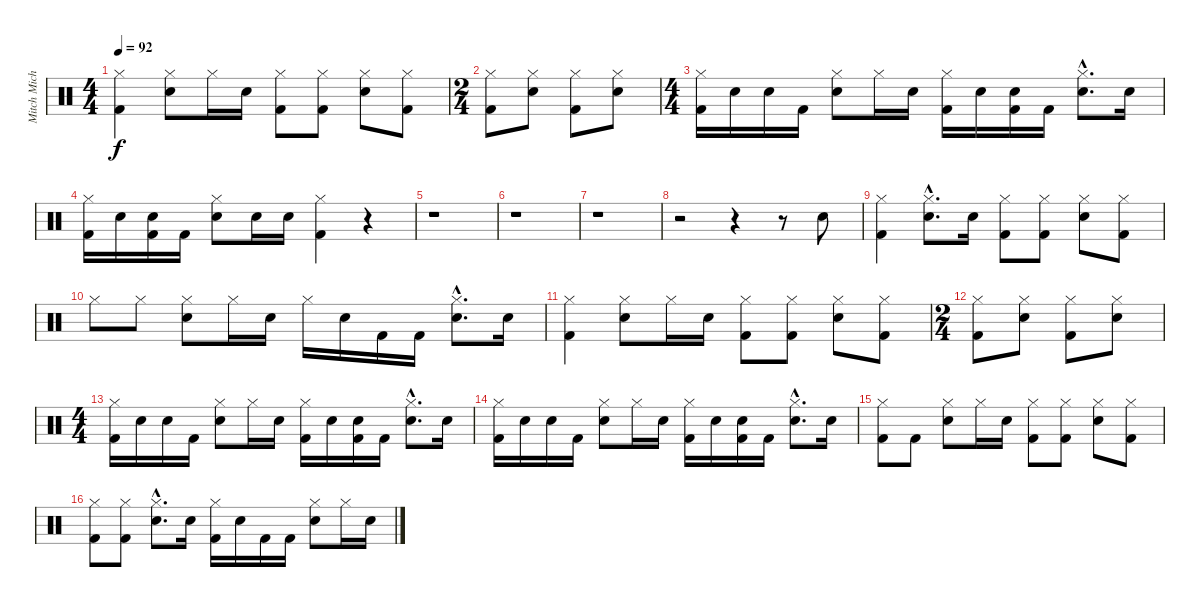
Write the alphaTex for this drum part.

\track ("Mitch Michell" "Mitch Mich") {instrument percussion}
\staff {score}
\articulation defaults
\ts (4 4)
\tempo 92
\clef neutral
\ks c
("Hi-Hat (closed)" "Kick (hit) 2").4{dy f} ("Hi-Hat (closed)" "Snare (hit) 2").8 "Hi-Hat (closed)".16 "Snare (hit) 2".16 ("Hi-Hat (closed)" "Kick (hit) 2").8 ("Hi-Hat (closed)" "Kick (hit) 2").8 ("Hi-Hat (closed)" "Snare (hit) 2").8 ("Hi-Hat (closed)" "Kick (hit) 2").8 |
\ts (2 4)
("Hi-Hat (closed)" "Kick (hit) 2").8 ("Hi-Hat (closed)" "Snare (hit) 2").8 ("Hi-Hat (closed)" "Kick (hit) 2").8 ("Hi-Hat (closed)" "Snare (hit) 2").8 |
\ts (4 4)
("Hi-Hat (closed)" "Kick (hit) 2").16 "Snare (hit) 2".16 "Snare (hit) 2".16 "Kick (hit) 2".16 ("Hi-Hat (closed)" "Snare (hit) 2").8 "Hi-Hat (closed)".16 "Snare (hit) 2".16 ("Hi-Hat (closed)" "Kick (hit) 2").16 "Snare (hit) 2".16 ("Snare (hit) 2" "Kick (hit) 2").16 "Kick (hit) 2".16 ("Hi-Hat (closed)"{hac} "Snare (hit) 2"{hac}).8{d} "Snare (hit) 2".16 |
("Hi-Hat (closed)" "Kick (hit) 2").16 "Snare (hit) 2".16 ("Snare (hit) 2" "Kick (hit) 2").16 "Kick (hit) 2".16 ("Hi-Hat (closed)" "Snare (hit) 2").8 "Snare (hit) 2".16 "Snare (hit) 2".16 ("Hi-Hat (closed)" "Kick (hit) 2").4 r.4 |
r.1 |
r.1 |
r.1 |
r.2 r.4 r.8 "Snare (hit) 2".8 |
("Hi-Hat (closed)" "Kick (hit) 2").4 ("Hi-Hat (closed)"{hac} "Snare (hit) 2"{hac}).8{d} "Snare (hit) 2".16 ("Hi-Hat (closed)" "Kick (hit) 2").8 ("Hi-Hat (closed)" "Kick (hit) 2").8 ("Hi-Hat (closed)" "Snare (hit) 2").8 ("Hi-Hat (closed)" "Kick (hit) 2").8 |
"Hi-Hat (closed)".8 "Hi-Hat (closed)".8 ("Hi-Hat (closed)" "Snare (hit) 2").8 "Hi-Hat (closed)".16 "Snare (hit) 2".16 "Hi-Hat (closed)".16 "Snare (hit) 2".16 "Kick (hit) 2".16 "Kick (hit) 2".16 ("Hi-Hat (closed)"{hac} "Snare (hit) 2"{hac}).8{d} "Snare (hit) 2".16 |
("Hi-Hat (closed)" "Kick (hit) 2").4 ("Hi-Hat (closed)" "Snare (hit) 2").8 "Hi-Hat (closed)".16 "Snare (hit) 2".16 ("Hi-Hat (closed)" "Kick (hit) 2").8 ("Hi-Hat (closed)" "Kick (hit) 2").8 ("Hi-Hat (closed)" "Snare (hit) 2").8 ("Hi-Hat (closed)" "Kick (hit) 2").8 |
\ts (2 4)
("Hi-Hat (closed)" "Kick (hit) 2").8 ("Hi-Hat (closed)" "Snare (hit) 2").8 ("Hi-Hat (closed)" "Kick (hit) 2").8 ("Hi-Hat (closed)" "Snare (hit) 2").8 |
\ts (4 4)
("Hi-Hat (closed)" "Kick (hit) 2").16 "Snare (hit) 2".16 "Snare (hit) 2".16 "Kick (hit) 2".16 ("Hi-Hat (closed)" "Snare (hit) 2").8 "Hi-Hat (closed)".16 "Snare (hit) 2".16 ("Hi-Hat (closed)" "Kick (hit) 2").16 "Snare (hit) 2".16 ("Snare (hit) 2" "Kick (hit) 2").16 "Kick (hit) 2".16 ("Hi-Hat (closed)"{hac} "Snare (hit) 2"{hac}).8{d} "Snare (hit) 2".16 |
("Hi-Hat (closed)" "Kick (hit) 2").16 "Snare (hit) 2".16 "Snare (hit) 2".16 "Kick (hit) 2".16 ("Hi-Hat (closed)" "Snare (hit) 2").8 "Hi-Hat (closed)".16 "Snare (hit) 2".16 ("Hi-Hat (closed)" "Kick (hit) 2").16 "Snare (hit) 2".16 ("Snare (hit) 2" "Kick (hit) 2").16 "Kick (hit) 2".16 ("Hi-Hat (closed)"{hac} "Snare (hit) 2"{hac}).8{d} "Snare (hit) 2".16 |
("Hi-Hat (closed)" "Kick (hit) 2").8 "Kick (hit) 2".8 ("Hi-Hat (closed)" "Snare (hit) 2").8 "Hi-Hat (closed)".16 "Snare (hit) 2".16 ("Hi-Hat (closed)" "Kick (hit) 2").8 ("Hi-Hat (closed)" "Kick (hit) 2").8 ("Hi-Hat (closed)" "Snare (hit) 2").8 ("Hi-Hat (closed)" "Kick (hit) 2").8 |
("Hi-Hat (closed)" "Kick (hit) 2").8 ("Hi-Hat (closed)" "Kick (hit) 2").8 ("Hi-Hat (closed)"{hac} "Snare (hit) 2"{hac}).8{d} "Snare (hit) 2".16 ("Hi-Hat (closed)" "Kick (hit) 2").16 "Snare (hit) 2".16 "Kick (hit) 2".16 "Kick (hit) 2".16 ("Hi-Hat (closed)" "Snare (hit) 2").8 "Hi-Hat (closed)".16 "Snare (hit) 2".16
